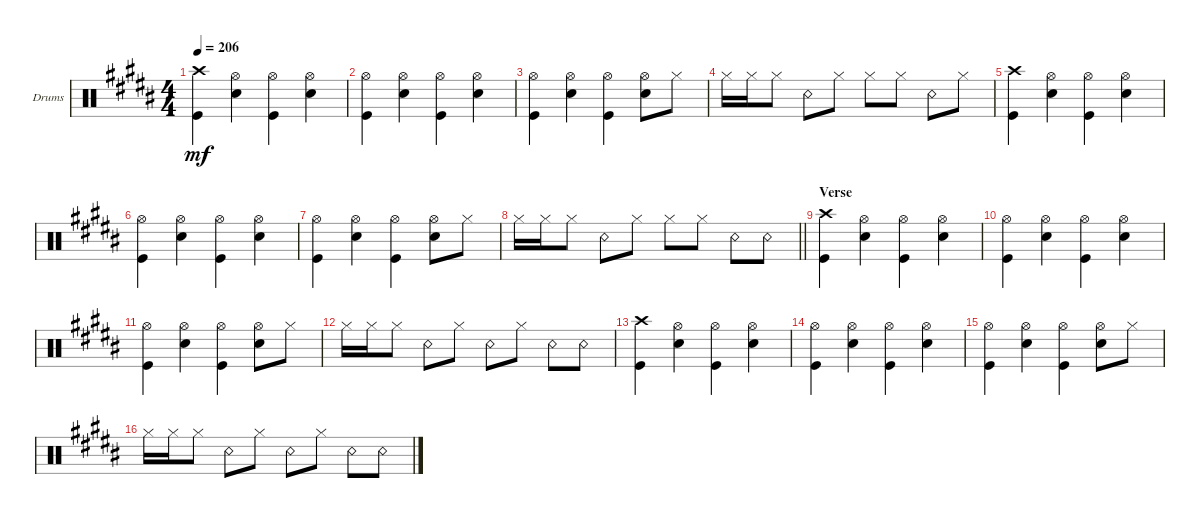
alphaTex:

\defaultSystemsLayout 4
\bracketExtendMode groupsimilarinstruments
\firstSystemTrackNameOrientation horizontal
\otherSystemsTrackNameOrientation horizontal
\track ("Drums" "Drums") {instrument percussion}
\staff {score}
\articulation defaults
\ts (4 4)
\tempo 206
\clef neutral
\ks b
("Kick (hit)" "Crash high (hit)").4{dy mf} ("Hi-Hat (open)" "Snare (hit) 2").4 ("Hi-Hat (open)" "Kick (hit)").4 ("Hi-Hat (open)" "Snare (hit) 2").4 |
("Hi-Hat (open)" "Kick (hit)").4 ("Hi-Hat (open)" "Snare (hit) 2").4 ("Hi-Hat (open)" "Kick (hit)").4 ("Hi-Hat (open)" "Snare (hit) 2").4 |
("Hi-Hat (open)" "Kick (hit)").4 ("Hi-Hat (open)" "Snare (hit) 2").4 ("Hi-Hat (open)" "Kick (hit)").4 ("Hi-Hat (open)" "Snare (hit) 2").8 "Hi-Hat (closed)".8 |
"Hi-Hat (closed)".16 "Hi-Hat (closed)".16 "Hi-Hat (closed)".8 "Snare (rim shot)".8 "Hi-Hat (closed)".8 "Hi-Hat (closed)".8 "Hi-Hat (closed)".8 "Snare (rim shot)".8 "Hi-Hat (closed)".8 |
("Kick (hit)" "Crash high (hit)").4 ("Hi-Hat (open)" "Snare (hit) 2").4 ("Hi-Hat (open)" "Kick (hit)").4 ("Hi-Hat (open)" "Snare (hit) 2").4 |
("Hi-Hat (open)" "Kick (hit)").4 ("Hi-Hat (open)" "Snare (hit) 2").4 ("Hi-Hat (open)" "Kick (hit)").4 ("Hi-Hat (open)" "Snare (hit) 2").4 |
("Hi-Hat (open)" "Kick (hit)").4 ("Hi-Hat (open)" "Snare (hit) 2").4 ("Hi-Hat (open)" "Kick (hit)").4 ("Hi-Hat (open)" "Snare (hit) 2").8 "Hi-Hat (closed)".8 |
\barLineRight lightlight "Hi-Hat (closed)".16 "Hi-Hat (closed)".16 "Hi-Hat (closed)".8 "Snare (rim shot)".8 "Hi-Hat (closed)".8 "Hi-Hat (closed)".8 "Hi-Hat (closed)".8 "Snare (rim shot)".8 "Snare (rim shot)".8
|
\section ("" "Verse")
("Kick (hit)" "Crash high (hit)").4 ("Hi-Hat (open)" "Snare (hit) 2").4 ("Hi-Hat (open)" "Kick (hit)").4 ("Hi-Hat (open)" "Snare (hit) 2").4 |
("Hi-Hat (open)" "Kick (hit)").4 ("Hi-Hat (open)" "Snare (hit) 2").4 ("Hi-Hat (open)" "Kick (hit)").4 ("Hi-Hat (open)" "Snare (hit) 2").4 |
("Hi-Hat (open)" "Kick (hit)").4 ("Hi-Hat (open)" "Snare (hit) 2").4 ("Hi-Hat (open)" "Kick (hit)").4 ("Hi-Hat (open)" "Snare (hit) 2").8 "Hi-Hat (closed)".8 |
"Hi-Hat (closed)".16 "Hi-Hat (closed)".16 "Hi-Hat (closed)".8 "Snare (rim shot)".8 "Hi-Hat (closed)".8 "Snare (rim shot)".8 "Hi-Hat (closed)".8 "Snare (rim shot)".8 "Snare (rim shot)".8 |
("Kick (hit)" "Crash high (hit)").4 ("Hi-Hat (open)" "Snare (hit) 2").4 ("Hi-Hat (open)" "Kick (hit)").4 ("Hi-Hat (open)" "Snare (hit) 2").4 |
("Hi-Hat (open)" "Kick (hit)").4 ("Hi-Hat (open)" "Snare (hit) 2").4 ("Hi-Hat (open)" "Kick (hit)").4 ("Hi-Hat (open)" "Snare (hit) 2").4 |
("Hi-Hat (open)" "Kick (hit)").4 ("Hi-Hat (open)" "Snare (hit) 2").4 ("Hi-Hat (open)" "Kick (hit)").4 ("Hi-Hat (open)" "Snare (hit) 2").8 "Hi-Hat (closed)".8 |
"Hi-Hat (closed)".16 "Hi-Hat (closed)".16 "Hi-Hat (closed)".8 "Snare (rim shot)".8 "Hi-Hat (closed)".8 "Snare (rim shot)".8 "Hi-Hat (closed)".8 "Snare (rim shot)".8 "Snare (rim shot)".8
